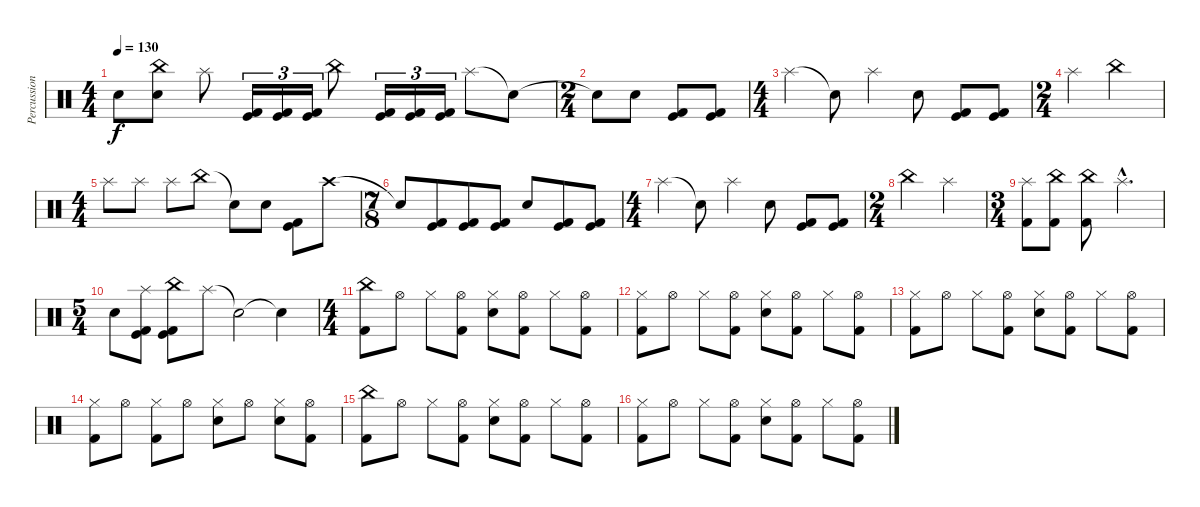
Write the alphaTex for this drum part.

\track ("Percussion" "Percussion") {instrument percussion}
\staff {score}
\articulation defaults
\ts (4 4)
\tempo 130
\clef neutral
\ks c "Snare (hit)"{t}.8{dy f}
("China (hit)" "Snare (hit) 2").8 "Splash (hit)".8 ("Kick (hit)" "Kick (hit) 2").16{tu (3 2)} ("Kick (hit)" "Kick (hit) 2").16{tu (3 2)} ("Kick (hit)" "Kick (hit) 2").16{tu (3 2)} "China (hit)".8 ("Kick (hit)" "Kick (hit) 2").16{tu (3 2)} ("Kick (hit)" "Kick (hit) 2").16{tu (3 2)} ("Kick (hit)" "Kick (hit) 2").16{tu (3 2)} "Splash (hit)".8 "Snare (hit)"{t}.8 |
\ts (2 4)
"Snare (hit)"{t}.8 "Snare (hit) 2".8 ("Kick (hit)" "Kick (hit) 2").8 ("Kick (hit)" "Kick (hit) 2").8 |
\ts (4 4)
"Splash (hit)".4 "Snare (hit)"{t}.8 "Splash (hit)".4 "Snare (hit) 2".8 ("Kick (hit)" "Kick (hit) 2").8 ("Kick (hit)" "Kick (hit) 2").8 |
\ts (2 4)
"Splash (hit)".4 "China (hit)".4 |
\ts (4 4)
"Splash (hit)".8 "Splash (hit)".8 "Splash (hit)".8 "China (hit)".8 "Snare (hit)"{t}.8 "Snare (hit) 2".8 ("Kick (hit)" "Kick (hit) 2").8 "Crash high (hit)".8 |
\ts (7 8)
"Snare (hit)"{t}.8 ("Kick (hit)" "Kick (hit) 2").8 ("Kick (hit)" "Kick (hit) 2").8 ("Kick (hit)" "Kick (hit) 2").8 "Snare (hit) 2".8 ("Kick (hit)" "Kick (hit) 2").8 ("Kick (hit)" "Kick (hit) 2").8 |
\ts (4 4)
"Splash (hit)".4 "Snare (hit)"{t}.8 "Splash (hit)".4 "Snare (hit) 2".8 ("Kick (hit)" "Kick (hit) 2").8 ("Kick (hit)" "Kick (hit) 2").8 |
\ts (2 4)
"China (hit)".4 "Splash (hit)".4 |
\ts (3 4)
("Splash (hit)" "Kick (hit) 2").8 ("China (hit)" "Kick (hit) 2").8 ("China (hit)" "Kick (hit) 2").8 "Splash (hit)"{hac}.4{d} |
\ts (5 4)
"Snare (hit) 2".8 ("Splash (hit)" "Kick (hit)" "Kick (hit) 2").8 ("China (hit)" "Kick (hit)" "Kick (hit) 2").8 "Splash (hit)".8 "Snare (hit)"{t}.2 "Snare (hit)"{t}.4 |
\ts (4 4)
("China (hit)" "Kick (hit) 2").8 "Hi-Hat (open)".8 "Hi-Hat (closed)".8 ("Hi-Hat (open)" "Kick (hit) 2").8 ("Hi-Hat (closed)" "Snare (hit) 2").8 ("Hi-Hat (open)" "Kick (hit) 2").8 "Hi-Hat (closed)".8 ("Hi-Hat (open)" "Kick (hit) 2").8 |
("Hi-Hat (closed)" "Kick (hit) 2").8 "Hi-Hat (open)".8 "Hi-Hat (closed)".8 ("Hi-Hat (open)" "Kick (hit) 2").8 ("Hi-Hat (closed)" "Snare (hit) 2").8 ("Hi-Hat (open)" "Kick (hit) 2").8 "Hi-Hat (closed)".8 ("Hi-Hat (open)" "Kick (hit) 2").8 |
("Hi-Hat (closed)" "Kick (hit) 2").8 "Hi-Hat (open)".8 "Hi-Hat (closed)".8 ("Hi-Hat (open)" "Kick (hit) 2").8 ("Hi-Hat (closed)" "Snare (hit) 2").8 ("Hi-Hat (open)" "Kick (hit) 2").8 "Hi-Hat (closed)".8 ("Hi-Hat (open)" "Kick (hit) 2").8 |
("Hi-Hat (closed)" "Kick (hit) 2").8 "Hi-Hat (open)".8 ("Hi-Hat (closed)" "Kick (hit) 2").8 "Hi-Hat (open)".8 ("Hi-Hat (closed)" "Snare (hit) 2").8 "Hi-Hat (open)".8 ("Hi-Hat (closed)" "Snare (hit) 2").8 ("Hi-Hat (open)" "Kick (hit) 2").8 |
("China (hit)" "Kick (hit) 2").8 "Hi-Hat (open)".8 "Hi-Hat (closed)".8 ("Hi-Hat (open)" "Kick (hit) 2").8 ("Hi-Hat (closed)" "Snare (hit) 2").8 ("Hi-Hat (open)" "Kick (hit) 2").8 "Hi-Hat (closed)".8 ("Hi-Hat (open)" "Kick (hit) 2").8 |
("Hi-Hat (closed)" "Kick (hit) 2").8 "Hi-Hat (open)".8 "Hi-Hat (closed)".8 ("Hi-Hat (open)" "Kick (hit) 2").8 ("Hi-Hat (closed)" "Snare (hit) 2").8 ("Hi-Hat (open)" "Kick (hit) 2").8 "Hi-Hat (closed)".8 ("Hi-Hat (open)" "Kick (hit) 2").8
